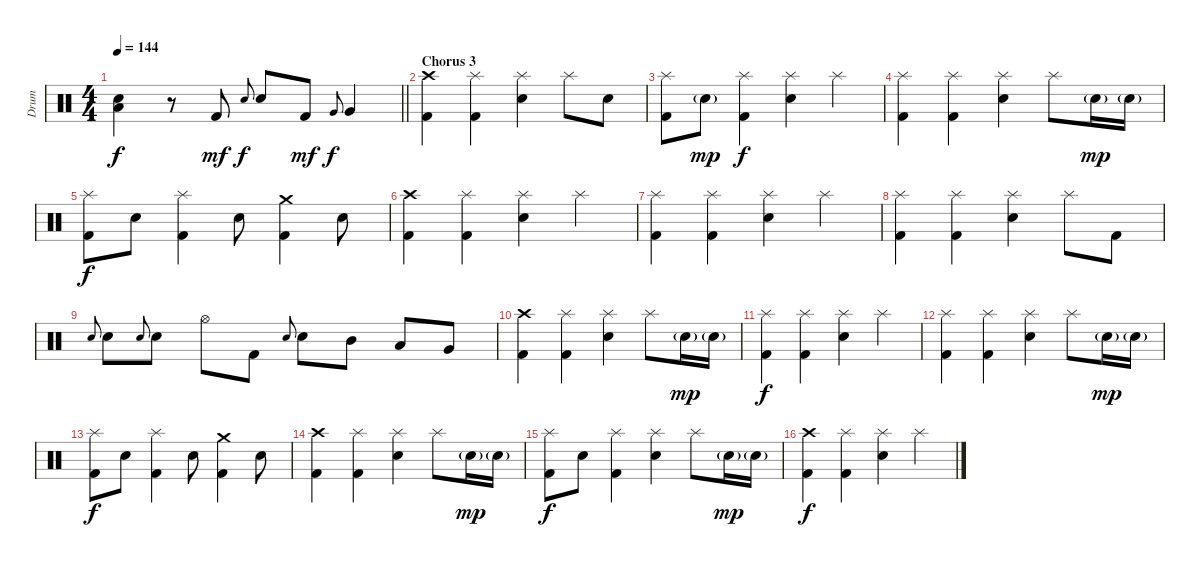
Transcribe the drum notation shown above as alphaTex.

\track ("Drum" "Drum") {instrument percussion}
\staff {score}
\articulation defaults
\ts (4 4)
\tempo 144
\clef neutral
\barLineRight lightlight
\ks c
("Electric Snare (hit)" "Low Floor Tom (hit)").4{dy f} r.8 "Kick (hit) 2".8{dy mf} "Electric Snare (hit)".8{gr onbeat dy f} "Electric Snare (hit)".8 "Kick (hit) 2".8{dy mf} "Very Low Tom (hit)".8{gr onbeat dy f} "Very Low Tom (hit)".4 |
\section ("" "Chorus 3")
("Crash high (hit)" "Kick (hit) 2").4 ("Splash (hit)" "Kick (hit) 2").4 ("Splash (hit)" "Electric Snare (hit)").4 "Splash (hit)".8 "Electric Snare (hit)".8 |
("Splash (hit)" "Kick (hit) 2").8 "Electric Snare (hit)"{g}.8{dy mp} ("Splash (hit)" "Kick (hit) 2").4{dy f} ("Splash (hit)" "Electric Snare (hit)").4 "Splash (hit)".4 |
("Splash (hit)" "Kick (hit) 2").4 ("Splash (hit)" "Kick (hit) 2").4 ("Splash (hit)" "Electric Snare (hit)").4 "Splash (hit)".8 "Electric Snare (hit)"{g}.16{dy mp} "Electric Snare (hit)"{g}.16 |
("Splash (hit)" "Kick (hit) 2").8{dy f} "Electric Snare (hit)".8 ("Splash (hit)" "Kick (hit) 2").4 "Electric Snare (hit)".8 ("Crash medium (hit)" "Kick (hit) 2").4 "Electric Snare (hit)".8 |
("Crash high (hit)" "Kick (hit) 2").4 ("Splash (hit)" "Kick (hit) 2").4 ("Splash (hit)" "Electric Snare (hit)").4 "Splash (hit)".4 |
("Splash (hit)" "Kick (hit) 2").4 ("Splash (hit)" "Kick (hit) 2").4 ("Splash (hit)" "Electric Snare (hit)").4 "Splash (hit)".4 |
("Splash (hit)" "Kick (hit) 2").4 ("Splash (hit)" "Kick (hit) 2").4 ("Splash (hit)" "Electric Snare (hit)").4 "Splash (hit)".8 "Kick (hit) 2".8 |
"Electric Snare (hit)".8{gr onbeat} "Electric Snare (hit)".8 "Electric Snare (hit)".8{gr onbeat} "Electric Snare (hit)".8 "Hi-Hat (open)".8 "Kick (hit) 2".8 "Electric Snare (hit)".8{gr onbeat} "Electric Snare (hit)".8 "Mid Tom (hit)".8 "Low Tom (hit)".8 "Very Low Tom (hit)".8 |
("Crash high (hit)" "Kick (hit) 2").4 ("Splash (hit)" "Kick (hit) 2").4 ("Splash (hit)" "Electric Snare (hit)").4 "Splash (hit)".8 "Electric Snare (hit)"{g}.16{dy mp} "Electric Snare (hit)"{g}.16 |
("Splash (hit)" "Kick (hit) 2").4{dy f} ("Splash (hit)" "Kick (hit) 2").4 ("Splash (hit)" "Electric Snare (hit)").4 "Splash (hit)".4 |
("Splash (hit)" "Kick (hit) 2").4 ("Splash (hit)" "Kick (hit) 2").4 ("Splash (hit)" "Electric Snare (hit)").4 "Splash (hit)".8 "Electric Snare (hit)"{g}.16{dy mp} "Electric Snare (hit)"{g}.16 |
("Splash (hit)" "Kick (hit) 2").8{dy f} "Electric Snare (hit)".8 ("Splash (hit)" "Kick (hit) 2").4 "Electric Snare (hit)".8 ("Crash medium (hit)" "Kick (hit) 2").4 "Electric Snare (hit)".8 |
("Crash high (hit)" "Kick (hit) 2").4 ("Splash (hit)" "Kick (hit) 2").4 ("Splash (hit)" "Electric Snare (hit)").4 "Splash (hit)".8 "Electric Snare (hit)"{g}.16{dy mp} "Electric Snare (hit)"{g}.16 |
("Splash (hit)" "Kick (hit) 2").8{dy f} "Electric Snare (hit)".8 ("Splash (hit)" "Kick (hit) 2").4 ("Splash (hit)" "Electric Snare (hit)").4 "Splash (hit)".8 "Electric Snare (hit)"{g}.16{dy mp} "Electric Snare (hit)"{g}.16 |
("Crash high (hit)" "Kick (hit) 2").4{dy f} ("Splash (hit)" "Kick (hit) 2").4 ("Splash (hit)" "Electric Snare (hit)").4 "Splash (hit)".4
